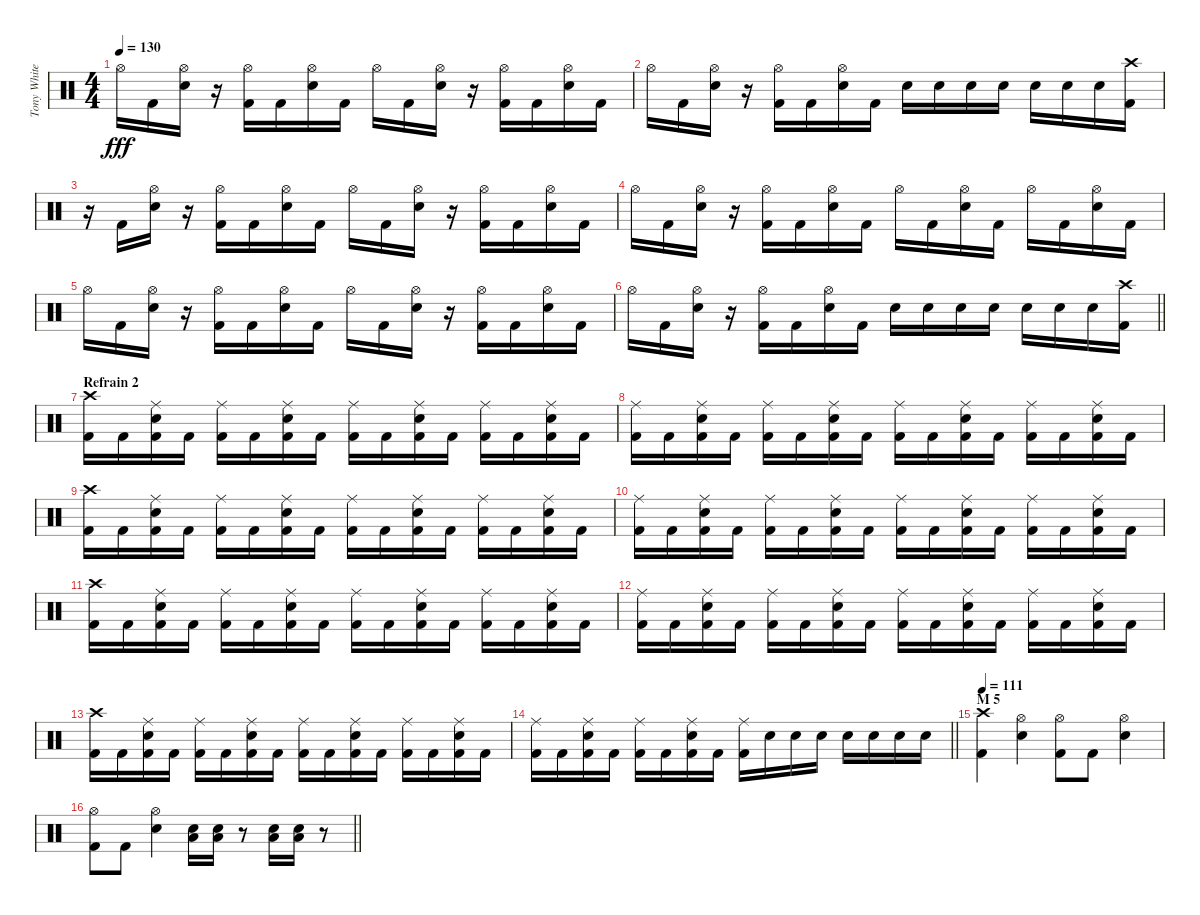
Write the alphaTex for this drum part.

\track ("Tony White" "Tony White") {instrument percussion}
\staff {score}
\articulation defaults
\ts (4 4)
\tempo 130
\clef neutral
\ks c "Hi-Hat (open)".16{dy fff} "Kick (hit) 2".16
("Hi-Hat (open)" "Electric Snare (hit)").16 r.16 ("Hi-Hat (open)" "Kick (hit) 2").16 "Kick (hit) 2".16 ("Hi-Hat (open)" "Electric Snare (hit)").16 "Kick (hit) 2".16 "Hi-Hat (open)".16 "Kick (hit) 2".16 ("Hi-Hat (open)" "Electric Snare (hit)").16 r.16 ("Hi-Hat (open)" "Kick (hit) 2").16 "Kick (hit) 2".16 ("Hi-Hat (open)" "Electric Snare (hit)").16 "Kick (hit) 2".16 |
"Hi-Hat (open)".16 "Kick (hit) 2".16 ("Hi-Hat (open)" "Electric Snare (hit)").16 r.16 ("Hi-Hat (open)" "Kick (hit) 2").16 "Kick (hit) 2".16 ("Hi-Hat (open)" "Electric Snare (hit)").16 "Kick (hit) 2".16 "Electric Snare (hit)".16 "Electric Snare (hit)".16 "Electric Snare (hit)".16 "Electric Snare (hit)".16 "Electric Snare (hit)".16 "Electric Snare (hit)".16 "Electric Snare (hit)".16 ("Crash high (hit)" "Kick (hit) 2").16 |
r.16 "Kick (hit) 2".16 ("Hi-Hat (open)" "Electric Snare (hit)").16 r.16 ("Hi-Hat (open)" "Kick (hit) 2").16 "Kick (hit) 2".16 ("Hi-Hat (open)" "Electric Snare (hit)").16 "Kick (hit) 2".16 "Hi-Hat (open)".16 "Kick (hit) 2".16 ("Hi-Hat (open)" "Electric Snare (hit)").16 r.16 ("Hi-Hat (open)" "Kick (hit) 2").16 "Kick (hit) 2".16 ("Hi-Hat (open)" "Electric Snare (hit)").16 "Kick (hit) 2".16 |
"Hi-Hat (open)".16 "Kick (hit) 2".16 ("Hi-Hat (open)" "Electric Snare (hit)").16 r.16 ("Hi-Hat (open)" "Kick (hit) 2").16 "Kick (hit) 2".16 ("Hi-Hat (open)" "Electric Snare (hit)").16 "Kick (hit) 2".16 "Hi-Hat (open)".16 "Kick (hit) 2".16 ("Hi-Hat (open)" "Electric Snare (hit)").16 "Kick (hit) 2".16 "Hi-Hat (open)".16 "Kick (hit) 2".16 ("Hi-Hat (open)" "Electric Snare (hit)").16 "Kick (hit) 2".16 |
"Hi-Hat (open)".16 "Kick (hit) 2".16 ("Hi-Hat (open)" "Electric Snare (hit)").16 r.16 ("Hi-Hat (open)" "Kick (hit) 2").16 "Kick (hit) 2".16 ("Hi-Hat (open)" "Electric Snare (hit)").16 "Kick (hit) 2".16 "Hi-Hat (open)".16 "Kick (hit) 2".16 ("Hi-Hat (open)" "Electric Snare (hit)").16 r.16 ("Hi-Hat (open)" "Kick (hit) 2").16 "Kick (hit) 2".16 ("Hi-Hat (open)" "Electric Snare (hit)").16 "Kick (hit) 2".16 |
\barLineRight lightlight "Hi-Hat (open)".16 "Kick (hit) 2".16
("Hi-Hat (open)" "Electric Snare (hit)").16 r.16 ("Hi-Hat (open)" "Kick (hit) 2").16 "Kick (hit) 2".16 ("Hi-Hat (open)" "Electric Snare (hit)").16 "Kick (hit) 2".16 "Electric Snare (hit)".16 "Electric Snare (hit)".16 "Electric Snare (hit)".16 "Electric Snare (hit)".16 "Electric Snare (hit)".16 "Electric Snare (hit)".16 "Electric Snare (hit)".16 ("Crash high (hit)" "Kick (hit) 2").16 |
\section ("" "Refrain 2")
("Crash high (hit)" "Kick (hit) 2").16 "Kick (hit) 2".16 ("Ride (middle)" "Electric Snare (hit)" "Kick (hit) 2").16 "Kick (hit) 2".16 ("Ride (middle)" "Kick (hit) 2").16 "Kick (hit) 2".16 ("Ride (middle)" "Electric Snare (hit)" "Kick (hit) 2").16 "Kick (hit) 2".16 ("Ride (middle)" "Kick (hit) 2").16 "Kick (hit) 2".16 ("Ride (middle)" "Electric Snare (hit)" "Kick (hit) 2").16 "Kick (hit) 2".16 ("Ride (middle)" "Kick (hit) 2").16 "Kick (hit) 2".16 ("Ride (middle)" "Electric Snare (hit)" "Kick (hit) 2").16 "Kick (hit) 2".16 |
("Ride (middle)" "Kick (hit) 2").16 "Kick (hit) 2".16 ("Ride (middle)" "Electric Snare (hit)" "Kick (hit) 2").16 "Kick (hit) 2".16 ("Ride (middle)" "Kick (hit) 2").16 "Kick (hit) 2".16 ("Ride (middle)" "Electric Snare (hit)" "Kick (hit) 2").16 "Kick (hit) 2".16 ("Ride (middle)" "Kick (hit) 2").16 "Kick (hit) 2".16 ("Ride (middle)" "Electric Snare (hit)" "Kick (hit) 2").16 "Kick (hit) 2".16 ("Ride (middle)" "Kick (hit) 2").16 "Kick (hit) 2".16 ("Ride (middle)" "Electric Snare (hit)" "Kick (hit) 2").16 "Kick (hit) 2".16 |
("Crash high (hit)" "Kick (hit) 2").16 "Kick (hit) 2".16 ("Ride (middle)" "Electric Snare (hit)" "Kick (hit) 2").16 "Kick (hit) 2".16 ("Ride (middle)" "Kick (hit) 2").16 "Kick (hit) 2".16 ("Ride (middle)" "Electric Snare (hit)" "Kick (hit) 2").16 "Kick (hit) 2".16 ("Ride (middle)" "Kick (hit) 2").16 "Kick (hit) 2".16 ("Ride (middle)" "Electric Snare (hit)" "Kick (hit) 2").16 "Kick (hit) 2".16 ("Ride (middle)" "Kick (hit) 2").16 "Kick (hit) 2".16 ("Ride (middle)" "Electric Snare (hit)" "Kick (hit) 2").16 "Kick (hit) 2".16 |
("Ride (middle)" "Kick (hit) 2").16 "Kick (hit) 2".16 ("Ride (middle)" "Electric Snare (hit)" "Kick (hit) 2").16 "Kick (hit) 2".16 ("Ride (middle)" "Kick (hit) 2").16 "Kick (hit) 2".16 ("Ride (middle)" "Electric Snare (hit)" "Kick (hit) 2").16 "Kick (hit) 2".16 ("Ride (middle)" "Kick (hit) 2").16 "Kick (hit) 2".16 ("Ride (middle)" "Electric Snare (hit)" "Kick (hit) 2").16 "Kick (hit) 2".16 ("Ride (middle)" "Kick (hit) 2").16 "Kick (hit) 2".16 ("Ride (middle)" "Electric Snare (hit)" "Kick (hit) 2").16 "Kick (hit) 2".16 |
("Crash high (hit)" "Kick (hit) 2").16 "Kick (hit) 2".16 ("Ride (middle)" "Electric Snare (hit)" "Kick (hit) 2").16 "Kick (hit) 2".16 ("Ride (middle)" "Kick (hit) 2").16 "Kick (hit) 2".16 ("Ride (middle)" "Electric Snare (hit)" "Kick (hit) 2").16 "Kick (hit) 2".16 ("Ride (middle)" "Kick (hit) 2").16 "Kick (hit) 2".16 ("Ride (middle)" "Electric Snare (hit)" "Kick (hit) 2").16 "Kick (hit) 2".16 ("Ride (middle)" "Kick (hit) 2").16 "Kick (hit) 2".16 ("Ride (middle)" "Electric Snare (hit)" "Kick (hit) 2").16 "Kick (hit) 2".16 |
("Ride (middle)" "Kick (hit) 2").16 "Kick (hit) 2".16 ("Ride (middle)" "Electric Snare (hit)" "Kick (hit) 2").16 "Kick (hit) 2".16 ("Ride (middle)" "Kick (hit) 2").16 "Kick (hit) 2".16 ("Ride (middle)" "Electric Snare (hit)" "Kick (hit) 2").16 "Kick (hit) 2".16 ("Ride (middle)" "Kick (hit) 2").16 "Kick (hit) 2".16 ("Ride (middle)" "Electric Snare (hit)" "Kick (hit) 2").16 "Kick (hit) 2".16 ("Ride (middle)" "Kick (hit) 2").16 "Kick (hit) 2".16 ("Ride (middle)" "Electric Snare (hit)" "Kick (hit) 2").16 "Kick (hit) 2".16 |
("Crash high (hit)" "Kick (hit) 2").16 "Kick (hit) 2".16 ("Ride (middle)" "Electric Snare (hit)" "Kick (hit) 2").16 "Kick (hit) 2".16 ("Ride (middle)" "Kick (hit) 2").16 "Kick (hit) 2".16 ("Ride (middle)" "Electric Snare (hit)" "Kick (hit) 2").16 "Kick (hit) 2".16 ("Ride (middle)" "Kick (hit) 2").16 "Kick (hit) 2".16 ("Ride (middle)" "Electric Snare (hit)" "Kick (hit) 2").16 "Kick (hit) 2".16 ("Ride (middle)" "Kick (hit) 2").16 "Kick (hit) 2".16 ("Ride (middle)" "Electric Snare (hit)" "Kick (hit) 2").16 "Kick (hit) 2".16 |
\barLineRight lightlight
("Ride (middle)" "Kick (hit) 2").16 "Kick (hit) 2".16 ("Ride (middle)" "Electric Snare (hit)" "Kick (hit) 2").16 "Kick (hit) 2".16 ("Ride (middle)" "Kick (hit) 2").16 "Kick (hit) 2".16 ("Ride (middle)" "Electric Snare (hit)" "Kick (hit) 2").16 "Kick (hit) 2".16 ("Ride (middle)" "Kick (hit) 2").16 "Electric Snare (hit)".16 "Electric Snare (hit)".16 "Electric Snare (hit)".16 "Electric Snare (hit)".16 "Electric Snare (hit)".16 "Electric Snare (hit)".16 "Electric Snare (hit)".16 |
\section ("" "M 5")
\tempo 111
("Crash high (hit)" "Kick (hit) 2").4 ("Hi-Hat (open)" "Electric Snare (hit)").4 ("Hi-Hat (open)" "Kick (hit) 2").8 "Kick (hit) 2".8 ("Hi-Hat (open)" "Electric Snare (hit)").4 |
\barLineRight lightlight
("Hi-Hat (open)" "Kick (hit) 2").8 "Kick (hit) 2".8 ("Hi-Hat (open)" "Electric Snare (hit)").4 ("Electric Snare (hit)" "Low Floor Tom (hit)").16 ("Electric Snare (hit)" "Low Floor Tom (hit)").16 r.8 ("Electric Snare (hit)" "Low Floor Tom (hit)").16 ("Electric Snare (hit)" "Low Floor Tom (hit)").16 r.8
